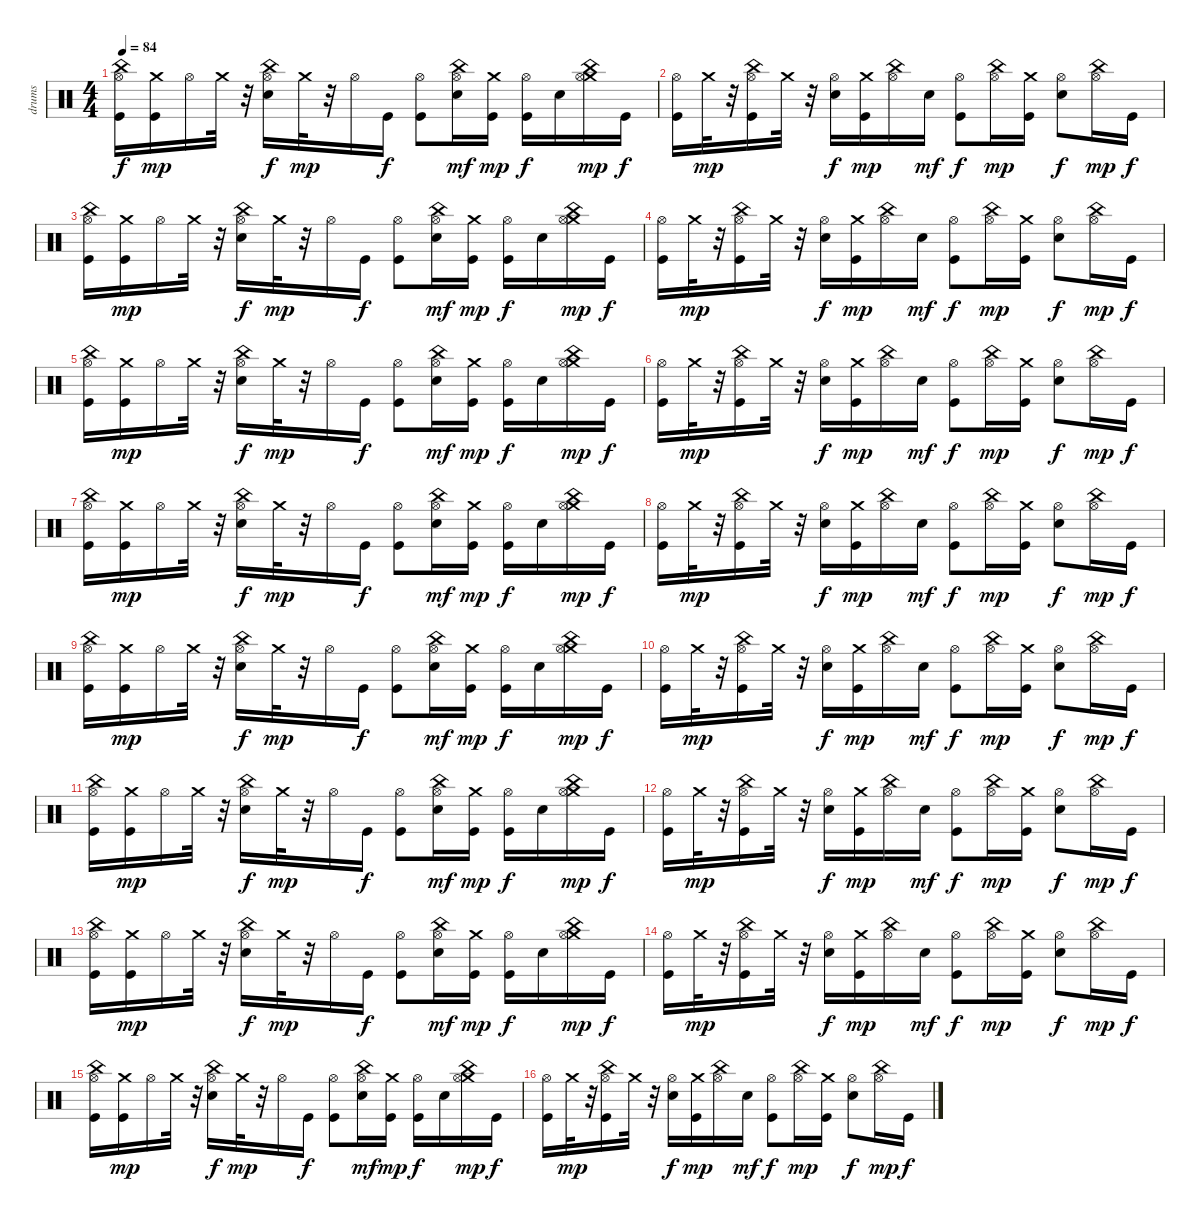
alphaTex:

\track ("drums" "drums") {instrument percussion}
\staff {score}
\articulation defaults
\ts (4 4)
\tempo 84
\clef neutral
\ks c
("China (hit)" "Hi-Hat (open)" "Kick (hit)").16{dy f} ("Crash medium (hit)" "Kick (hit)").16{dy mp} "Hi-Hat (open)".16 "Crash medium (hit)".32 r.32 ("China (hit)" "Hi-Hat (open)" "Electric Snare (hit)").16{dy f} "Crash medium (hit)".32{dy mp} r.32 "Hi-Hat (open)".16 "Kick (hit)".16{dy f} ("Hi-Hat (open)" "Kick (hit)").8 ("China (hit)" "Hi-Hat (open)" "Electric Snare (hit)").16{dy mf} ("Crash medium (hit)" "Kick (hit)").16{dy mp} ("Hi-Hat (open)" "Kick (hit)").16{dy f} "Electric Snare (hit)".16 ("China (hit)" "Crash medium (hit)" "Hi-Hat (open)").16{dy mp} "Kick (hit)".16{dy f} |
("Hi-Hat (open)" "Kick (hit)").16 "Crash medium (hit)".32{dy mp} r.32 ("China (hit)" "Hi-Hat (open)" "Kick (hit)").16 "Crash medium (hit)".32 r.32 ("Electric Snare (hit)" "Hi-Hat (open)").16{dy f} ("Crash medium (hit)" "Kick (hit)").16{dy mp} ("China (hit)" "Hi-Hat (open)").16 "Electric Snare (hit)".16{dy mf} ("Kick (hit)" "Hi-Hat (open)").8{dy f} ("China (hit)" "Hi-Hat (open)").16{dy mp} ("Crash medium (hit)" "Kick (hit)").16 ("Electric Snare (hit)" "Hi-Hat (open)").8{dy f} ("China (hit)" "Hi-Hat (open)").16{dy mp} "Kick (hit)".16{dy f} |
("China (hit)" "Hi-Hat (open)" "Kick (hit)").16 ("Crash medium (hit)" "Kick (hit)").16{dy mp} "Hi-Hat (open)".16 "Crash medium (hit)".32 r.32 ("China (hit)" "Hi-Hat (open)" "Electric Snare (hit)").16{dy f} "Crash medium (hit)".32{dy mp} r.32 "Hi-Hat (open)".16 "Kick (hit)".16{dy f} ("Hi-Hat (open)" "Kick (hit)").8 ("China (hit)" "Hi-Hat (open)" "Electric Snare (hit)").16{dy mf} ("Crash medium (hit)" "Kick (hit)").16{dy mp} ("Hi-Hat (open)" "Kick (hit)").16{dy f} "Electric Snare (hit)".16 ("China (hit)" "Crash medium (hit)" "Hi-Hat (open)").16{dy mp} "Kick (hit)".16{dy f} |
("Hi-Hat (open)" "Kick (hit)").16 "Crash medium (hit)".32{dy mp} r.32 ("China (hit)" "Hi-Hat (open)" "Kick (hit)").16 "Crash medium (hit)".32 r.32 ("Electric Snare (hit)" "Hi-Hat (open)").16{dy f} ("Crash medium (hit)" "Kick (hit)").16{dy mp} ("China (hit)" "Hi-Hat (open)").16 "Electric Snare (hit)".16{dy mf} ("Kick (hit)" "Hi-Hat (open)").8{dy f} ("China (hit)" "Hi-Hat (open)").16{dy mp} ("Crash medium (hit)" "Kick (hit)").16 ("Electric Snare (hit)" "Hi-Hat (open)").8{dy f} ("China (hit)" "Hi-Hat (open)").16{dy mp} "Kick (hit)".16{dy f} |
("China (hit)" "Hi-Hat (open)" "Kick (hit)").16 ("Crash medium (hit)" "Kick (hit)").16{dy mp} "Hi-Hat (open)".16 "Crash medium (hit)".32 r.32 ("China (hit)" "Hi-Hat (open)" "Electric Snare (hit)").16{dy f} "Crash medium (hit)".32{dy mp} r.32 "Hi-Hat (open)".16 "Kick (hit)".16{dy f} ("Hi-Hat (open)" "Kick (hit)").8 ("China (hit)" "Hi-Hat (open)" "Electric Snare (hit)").16{dy mf} ("Crash medium (hit)" "Kick (hit)").16{dy mp} ("Hi-Hat (open)" "Kick (hit)").16{dy f} "Electric Snare (hit)".16 ("China (hit)" "Crash medium (hit)" "Hi-Hat (open)").16{dy mp} "Kick (hit)".16{dy f} |
("Hi-Hat (open)" "Kick (hit)").16 "Crash medium (hit)".32{dy mp} r.32 ("China (hit)" "Hi-Hat (open)" "Kick (hit)").16 "Crash medium (hit)".32 r.32 ("Electric Snare (hit)" "Hi-Hat (open)").16{dy f} ("Crash medium (hit)" "Kick (hit)").16{dy mp} ("China (hit)" "Hi-Hat (open)").16 "Electric Snare (hit)".16{dy mf} ("Kick (hit)" "Hi-Hat (open)").8{dy f} ("China (hit)" "Hi-Hat (open)").16{dy mp} ("Crash medium (hit)" "Kick (hit)").16 ("Electric Snare (hit)" "Hi-Hat (open)").8{dy f} ("China (hit)" "Hi-Hat (open)").16{dy mp} "Kick (hit)".16{dy f} |
("China (hit)" "Hi-Hat (open)" "Kick (hit)").16 ("Crash medium (hit)" "Kick (hit)").16{dy mp} "Hi-Hat (open)".16 "Crash medium (hit)".32 r.32 ("China (hit)" "Hi-Hat (open)" "Electric Snare (hit)").16{dy f} "Crash medium (hit)".32{dy mp} r.32 "Hi-Hat (open)".16 "Kick (hit)".16{dy f} ("Hi-Hat (open)" "Kick (hit)").8 ("China (hit)" "Hi-Hat (open)" "Electric Snare (hit)").16{dy mf} ("Crash medium (hit)" "Kick (hit)").16{dy mp} ("Hi-Hat (open)" "Kick (hit)").16{dy f} "Electric Snare (hit)".16 ("China (hit)" "Crash medium (hit)" "Hi-Hat (open)").16{dy mp} "Kick (hit)".16{dy f} |
("Hi-Hat (open)" "Kick (hit)").16 "Crash medium (hit)".32{dy mp} r.32 ("China (hit)" "Hi-Hat (open)" "Kick (hit)").16 "Crash medium (hit)".32 r.32 ("Electric Snare (hit)" "Hi-Hat (open)").16{dy f} ("Crash medium (hit)" "Kick (hit)").16{dy mp} ("China (hit)" "Hi-Hat (open)").16 "Electric Snare (hit)".16{dy mf} ("Kick (hit)" "Hi-Hat (open)").8{dy f} ("China (hit)" "Hi-Hat (open)").16{dy mp} ("Crash medium (hit)" "Kick (hit)").16 ("Electric Snare (hit)" "Hi-Hat (open)").8{dy f} ("China (hit)" "Hi-Hat (open)").16{dy mp} "Kick (hit)".16{dy f} |
("China (hit)" "Hi-Hat (open)" "Kick (hit)").16 ("Crash medium (hit)" "Kick (hit)").16{dy mp} "Hi-Hat (open)".16 "Crash medium (hit)".32 r.32 ("China (hit)" "Hi-Hat (open)" "Electric Snare (hit)").16{dy f} "Crash medium (hit)".32{dy mp} r.32 "Hi-Hat (open)".16 "Kick (hit)".16{dy f} ("Hi-Hat (open)" "Kick (hit)").8 ("China (hit)" "Hi-Hat (open)" "Electric Snare (hit)").16{dy mf} ("Crash medium (hit)" "Kick (hit)").16{dy mp} ("Hi-Hat (open)" "Kick (hit)").16{dy f} "Electric Snare (hit)".16 ("China (hit)" "Crash medium (hit)" "Hi-Hat (open)").16{dy mp} "Kick (hit)".16{dy f} |
("Hi-Hat (open)" "Kick (hit)").16 "Crash medium (hit)".32{dy mp} r.32 ("China (hit)" "Hi-Hat (open)" "Kick (hit)").16 "Crash medium (hit)".32 r.32 ("Electric Snare (hit)" "Hi-Hat (open)").16{dy f} ("Crash medium (hit)" "Kick (hit)").16{dy mp} ("China (hit)" "Hi-Hat (open)").16 "Electric Snare (hit)".16{dy mf} ("Kick (hit)" "Hi-Hat (open)").8{dy f} ("China (hit)" "Hi-Hat (open)").16{dy mp} ("Crash medium (hit)" "Kick (hit)").16 ("Electric Snare (hit)" "Hi-Hat (open)").8{dy f} ("China (hit)" "Hi-Hat (open)").16{dy mp} "Kick (hit)".16{dy f} |
("China (hit)" "Hi-Hat (open)" "Kick (hit)").16 ("Crash medium (hit)" "Kick (hit)").16{dy mp} "Hi-Hat (open)".16 "Crash medium (hit)".32 r.32 ("China (hit)" "Hi-Hat (open)" "Electric Snare (hit)").16{dy f} "Crash medium (hit)".32{dy mp} r.32 "Hi-Hat (open)".16 "Kick (hit)".16{dy f} ("Hi-Hat (open)" "Kick (hit)").8 ("China (hit)" "Hi-Hat (open)" "Electric Snare (hit)").16{dy mf} ("Crash medium (hit)" "Kick (hit)").16{dy mp} ("Hi-Hat (open)" "Kick (hit)").16{dy f} "Electric Snare (hit)".16 ("China (hit)" "Crash medium (hit)" "Hi-Hat (open)").16{dy mp} "Kick (hit)".16{dy f} |
("Hi-Hat (open)" "Kick (hit)").16 "Crash medium (hit)".32{dy mp} r.32 ("China (hit)" "Hi-Hat (open)" "Kick (hit)").16 "Crash medium (hit)".32 r.32 ("Electric Snare (hit)" "Hi-Hat (open)").16{dy f} ("Crash medium (hit)" "Kick (hit)").16{dy mp} ("China (hit)" "Hi-Hat (open)").16 "Electric Snare (hit)".16{dy mf} ("Kick (hit)" "Hi-Hat (open)").8{dy f} ("China (hit)" "Hi-Hat (open)").16{dy mp} ("Crash medium (hit)" "Kick (hit)").16 ("Electric Snare (hit)" "Hi-Hat (open)").8{dy f} ("China (hit)" "Hi-Hat (open)").16{dy mp} "Kick (hit)".16{dy f} |
("China (hit)" "Hi-Hat (open)" "Kick (hit)").16 ("Crash medium (hit)" "Kick (hit)").16{dy mp} "Hi-Hat (open)".16 "Crash medium (hit)".32 r.32 ("China (hit)" "Hi-Hat (open)" "Electric Snare (hit)").16{dy f} "Crash medium (hit)".32{dy mp} r.32 "Hi-Hat (open)".16 "Kick (hit)".16{dy f} ("Hi-Hat (open)" "Kick (hit)").8 ("China (hit)" "Hi-Hat (open)" "Electric Snare (hit)").16{dy mf} ("Crash medium (hit)" "Kick (hit)").16{dy mp} ("Hi-Hat (open)" "Kick (hit)").16{dy f} "Electric Snare (hit)".16 ("China (hit)" "Crash medium (hit)" "Hi-Hat (open)").16{dy mp} "Kick (hit)".16{dy f} |
("Hi-Hat (open)" "Kick (hit)").16 "Crash medium (hit)".32{dy mp} r.32 ("China (hit)" "Hi-Hat (open)" "Kick (hit)").16 "Crash medium (hit)".32 r.32 ("Electric Snare (hit)" "Hi-Hat (open)").16{dy f} ("Crash medium (hit)" "Kick (hit)").16{dy mp} ("China (hit)" "Hi-Hat (open)").16 "Electric Snare (hit)".16{dy mf} ("Kick (hit)" "Hi-Hat (open)").8{dy f} ("China (hit)" "Hi-Hat (open)").16{dy mp} ("Crash medium (hit)" "Kick (hit)").16 ("Electric Snare (hit)" "Hi-Hat (open)").8{dy f} ("China (hit)" "Hi-Hat (open)").16{dy mp} "Kick (hit)".16{dy f} |
("China (hit)" "Hi-Hat (open)" "Kick (hit)").16 ("Crash medium (hit)" "Kick (hit)").16{dy mp} "Hi-Hat (open)".16 "Crash medium (hit)".32 r.32 ("China (hit)" "Hi-Hat (open)" "Electric Snare (hit)").16{dy f} "Crash medium (hit)".32{dy mp} r.32 "Hi-Hat (open)".16 "Kick (hit)".16{dy f} ("Hi-Hat (open)" "Kick (hit)").8 ("China (hit)" "Hi-Hat (open)" "Electric Snare (hit)").16{dy mf} ("Crash medium (hit)" "Kick (hit)").16{dy mp} ("Hi-Hat (open)" "Kick (hit)").16{dy f} "Electric Snare (hit)".16 ("China (hit)" "Crash medium (hit)" "Hi-Hat (open)").16{dy mp} "Kick (hit)".16{dy f} |
("Hi-Hat (open)" "Kick (hit)").16 "Crash medium (hit)".32{dy mp} r.32 ("China (hit)" "Hi-Hat (open)" "Kick (hit)").16 "Crash medium (hit)".32 r.32 ("Electric Snare (hit)" "Hi-Hat (open)").16{dy f} ("Crash medium (hit)" "Kick (hit)").16{dy mp} ("China (hit)" "Hi-Hat (open)").16 "Electric Snare (hit)".16{dy mf} ("Kick (hit)" "Hi-Hat (open)").8{dy f} ("China (hit)" "Hi-Hat (open)").16{dy mp} ("Crash medium (hit)" "Kick (hit)").16 ("Electric Snare (hit)" "Hi-Hat (open)").8{dy f} ("China (hit)" "Hi-Hat (open)").16{dy mp} "Kick (hit)".16{dy f}
